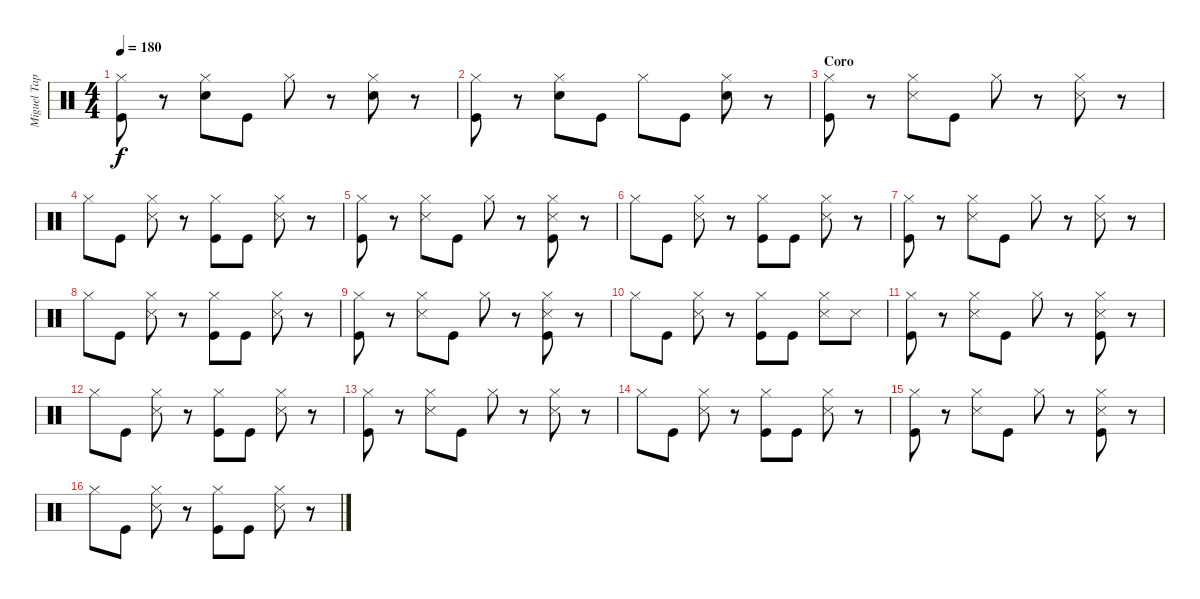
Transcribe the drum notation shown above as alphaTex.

\track ("Miguel Tapia (Batería)" "Miguel Tap") {instrument percussion}
\staff {score}
\articulation defaults
\ts (4 4)
\tempo 180
\clef neutral
\ks c
("Hi-Hat (closed)" "Kick (hit)").8{dy f} r.8 ("Hi-Hat (closed)" "Snare (hit) 2").8 "Kick (hit)".8 "Hi-Hat (closed)".8 r.8 ("Hi-Hat (closed)" "Snare (hit) 2").8 r.8 |
("Hi-Hat (closed)" "Kick (hit)").8 r.8 ("Hi-Hat (closed)" "Snare (hit) 2").8 "Kick (hit)".8 "Hi-Hat (closed)".8 "Kick (hit)".8 ("Hi-Hat (closed)" "Snare (hit) 2").8 r.8 |
\section ("" "Coro")
("Hi-Hat (closed)" "Kick (hit)").8 r.8 ("Hi-Hat (closed)" "Snare (side stick) 3").8 "Kick (hit)".8 "Hi-Hat (closed)".8 r.8 ("Hi-Hat (closed)" "Snare (side stick) 3").8 r.8 |
"Hi-Hat (closed)".8 "Kick (hit)".8 ("Hi-Hat (closed)" "Snare (side stick) 3").8 r.8 ("Hi-Hat (closed)" "Kick (hit)").8 "Kick (hit)".8 ("Hi-Hat (closed)" "Snare (side stick) 3").8 r.8 |
("Hi-Hat (closed)" "Kick (hit)").8 r.8 ("Hi-Hat (closed)" "Snare (side stick) 3").8 "Kick (hit)".8 "Hi-Hat (closed)".8 r.8 ("Hi-Hat (closed)" "Snare (side stick) 3" "Kick (hit)").8 r.8 |
"Hi-Hat (closed)".8 "Kick (hit)".8 ("Hi-Hat (closed)" "Snare (side stick) 3").8 r.8 ("Hi-Hat (closed)" "Kick (hit)").8 "Kick (hit)".8 ("Hi-Hat (closed)" "Snare (side stick) 3").8 r.8 |
("Hi-Hat (closed)" "Kick (hit)").8 r.8 ("Hi-Hat (closed)" "Snare (side stick) 3").8 "Kick (hit)".8 "Hi-Hat (closed)".8 r.8 ("Hi-Hat (closed)" "Snare (side stick) 3").8 r.8 |
"Hi-Hat (closed)".8 "Kick (hit)".8 ("Hi-Hat (closed)" "Snare (side stick) 3").8 r.8 ("Hi-Hat (closed)" "Kick (hit)").8 "Kick (hit)".8 ("Hi-Hat (closed)" "Snare (side stick) 3").8 r.8 |
("Hi-Hat (closed)" "Kick (hit)").8 r.8 ("Hi-Hat (closed)" "Snare (side stick) 3").8 "Kick (hit)".8 "Hi-Hat (closed)".8 r.8 ("Hi-Hat (closed)" "Snare (side stick) 3" "Kick (hit)").8 r.8 |
"Hi-Hat (closed)".8 "Kick (hit)".8 ("Hi-Hat (closed)" "Snare (side stick) 3").8 r.8 ("Hi-Hat (closed)" "Kick (hit)").8 "Kick (hit)".8 ("Hi-Hat (closed)" "Snare (side stick) 3").8 "Snare (side stick) 3".8 |
("Hi-Hat (closed)" "Kick (hit)").8 r.8 ("Hi-Hat (closed)" "Snare (side stick) 3").8 "Kick (hit)".8 "Hi-Hat (closed)".8 r.8 ("Hi-Hat (closed)" "Snare (side stick) 3" "Kick (hit)").8 r.8 |
"Hi-Hat (closed)".8 "Kick (hit)".8 ("Hi-Hat (closed)" "Snare (side stick) 3").8 r.8 ("Hi-Hat (closed)" "Kick (hit)").8 "Kick (hit)".8 ("Hi-Hat (closed)" "Snare (side stick) 3").8 r.8 |
("Hi-Hat (closed)" "Kick (hit)").8 r.8 ("Hi-Hat (closed)" "Snare (side stick) 3").8 "Kick (hit)".8 "Hi-Hat (closed)".8 r.8 ("Hi-Hat (closed)" "Snare (side stick) 3").8 r.8 |
"Hi-Hat (closed)".8 "Kick (hit)".8 ("Hi-Hat (closed)" "Snare (side stick) 3").8 r.8 ("Hi-Hat (closed)" "Kick (hit)").8 "Kick (hit)".8 ("Hi-Hat (closed)" "Snare (side stick) 3").8 r.8 |
("Hi-Hat (closed)" "Kick (hit)").8 r.8 ("Hi-Hat (closed)" "Snare (side stick) 3").8 "Kick (hit)".8 "Hi-Hat (closed)".8 r.8 ("Hi-Hat (closed)" "Snare (side stick) 3" "Kick (hit)").8 r.8 |
"Hi-Hat (closed)".8 "Kick (hit)".8 ("Hi-Hat (closed)" "Snare (side stick) 3").8 r.8 ("Hi-Hat (closed)" "Kick (hit)").8 "Kick (hit)".8 ("Hi-Hat (closed)" "Snare (side stick) 3").8 r.8
